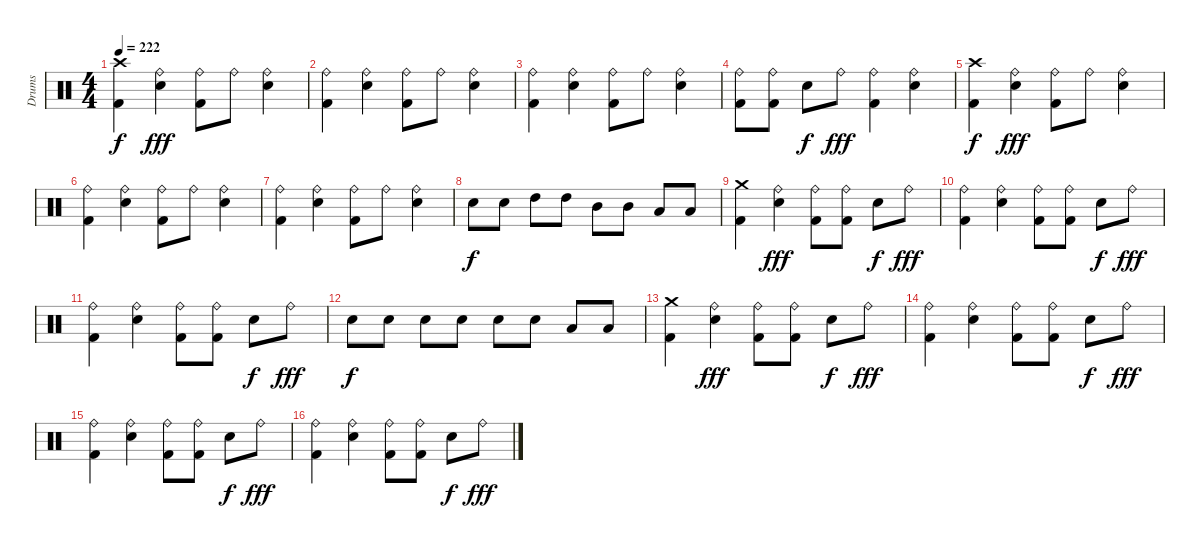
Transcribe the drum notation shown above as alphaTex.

\track ("Drums" "Drums") {instrument percussion}
\staff {score}
\articulation defaults
\ts (4 4)
\tempo 222
\clef neutral
\ks c
("Kick (hit) 2" "Crash high (hit)").4{dy f} ("Electric Snare (hit)" "Ride (bell)").4{dy fff} ("Kick (hit) 2" "Ride (bell)").8 "Ride (bell)".8 ("Electric Snare (hit)" "Ride (bell)").4 |
("Kick (hit) 2" "Ride (bell)").4 ("Electric Snare (hit)" "Ride (bell)").4 ("Kick (hit) 2" "Ride (bell)").8 "Ride (bell)".8 ("Electric Snare (hit)" "Ride (bell)").4 |
("Kick (hit) 2" "Ride (bell)").4 ("Electric Snare (hit)" "Ride (bell)").4 ("Kick (hit) 2" "Ride (bell)").8 "Ride (bell)".8 ("Electric Snare (hit)" "Ride (bell)").4 |
("Kick (hit) 2" "Ride (bell)").8 ("Kick (hit) 2" "Ride (bell)").8 "Electric Snare (hit)".8{dy f} "Ride (bell)".8{dy fff} ("Kick (hit) 2" "Ride (bell)").4 ("Electric Snare (hit)" "Ride (bell)").4 |
("Kick (hit) 2" "Crash high (hit)").4{dy f} ("Electric Snare (hit)" "Ride (bell)").4{dy fff} ("Kick (hit) 2" "Ride (bell)").8 "Ride (bell)".8 ("Electric Snare (hit)" "Ride (bell)").4 |
("Kick (hit) 2" "Ride (bell)").4 ("Electric Snare (hit)" "Ride (bell)").4 ("Kick (hit) 2" "Ride (bell)").8 "Ride (bell)".8 ("Electric Snare (hit)" "Ride (bell)").4 |
("Kick (hit) 2" "Ride (bell)").4 ("Electric Snare (hit)" "Ride (bell)").4 ("Kick (hit) 2" "Ride (bell)").8 "Ride (bell)".8 ("Electric Snare (hit)" "Ride (bell)").4 |
"Electric Snare (hit)".8{dy f} "Electric Snare (hit)".8 "High Tom (hit)".8 "High Tom (hit)".8 "Mid Tom (hit)".8 "Mid Tom (hit)".8 "Low Tom (hit)".8 "Low Tom (hit)".8 |
("Kick (hit) 2" "Crash medium (hit)").4 ("Electric Snare (hit)" "Ride (bell)").4{dy fff} ("Kick (hit) 2" "Ride (bell)").8 ("Kick (hit) 2" "Ride (bell)").8 "Electric Snare (hit)".8{dy f} "Ride (bell)".8{dy fff} |
("Kick (hit) 2" "Ride (bell)").4 ("Electric Snare (hit)" "Ride (bell)").4 ("Kick (hit) 2" "Ride (bell)").8 ("Kick (hit) 2" "Ride (bell)").8 "Electric Snare (hit)".8{dy f} "Ride (bell)".8{dy fff} |
("Kick (hit) 2" "Ride (bell)").4 ("Electric Snare (hit)" "Ride (bell)").4 ("Kick (hit) 2" "Ride (bell)").8 ("Kick (hit) 2" "Ride (bell)").8 "Electric Snare (hit)".8{dy f} "Ride (bell)".8{dy fff} |
"Electric Snare (hit)".8{dy f} "Electric Snare (hit)".8 "Electric Snare (hit)".8 "Electric Snare (hit)".8 "Electric Snare (hit)".8 "Electric Snare (hit)".8 "Low Tom (hit)".8 "Low Tom (hit)".8 |
("Kick (hit) 2" "Crash medium (hit)").4 ("Electric Snare (hit)" "Ride (bell)").4{dy fff} ("Kick (hit) 2" "Ride (bell)").8 ("Kick (hit) 2" "Ride (bell)").8 "Electric Snare (hit)".8{dy f} "Ride (bell)".8{dy fff} |
("Kick (hit) 2" "Ride (bell)").4 ("Electric Snare (hit)" "Ride (bell)").4 ("Kick (hit) 2" "Ride (bell)").8 ("Kick (hit) 2" "Ride (bell)").8 "Electric Snare (hit)".8{dy f} "Ride (bell)".8{dy fff} |
("Kick (hit) 2" "Ride (bell)").4 ("Electric Snare (hit)" "Ride (bell)").4 ("Kick (hit) 2" "Ride (bell)").8 ("Kick (hit) 2" "Ride (bell)").8 "Electric Snare (hit)".8{dy f} "Ride (bell)".8{dy fff} |
("Kick (hit) 2" "Ride (bell)").4 ("Electric Snare (hit)" "Ride (bell)").4 ("Kick (hit) 2" "Ride (bell)").8 ("Kick (hit) 2" "Ride (bell)").8 "Electric Snare (hit)".8{dy f} "Ride (bell)".8{dy fff}
